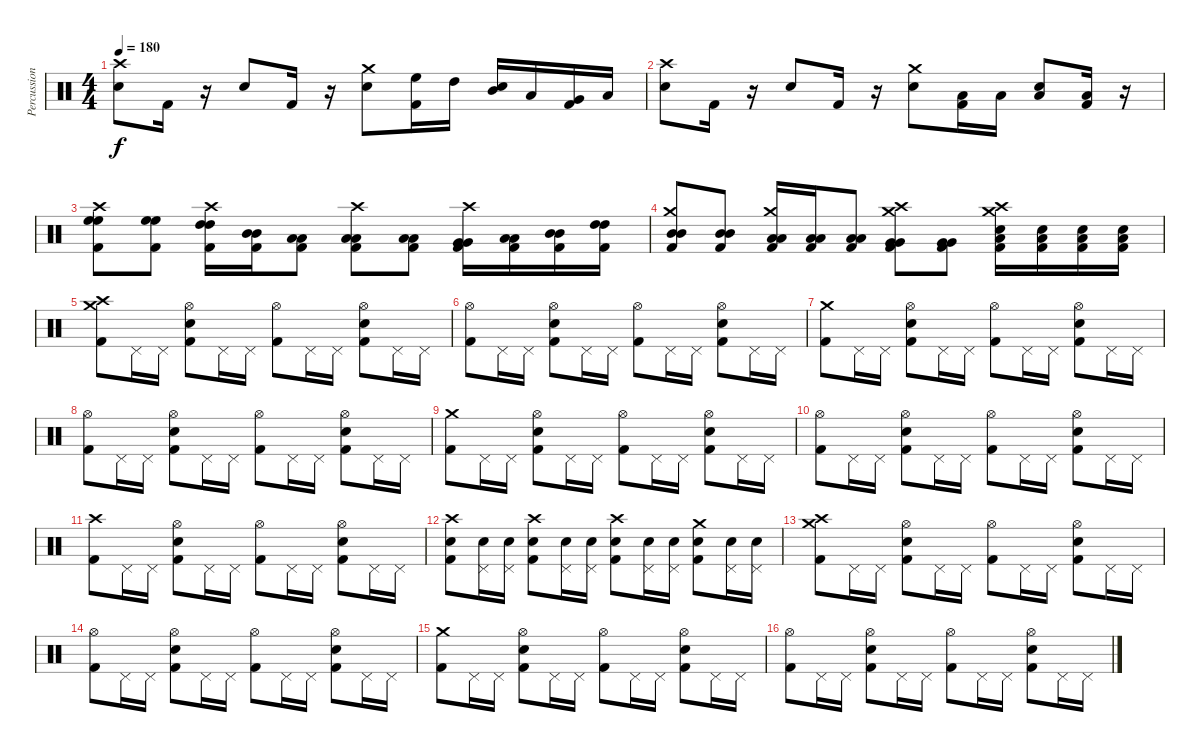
\track ("Percussion" "Percussion") {instrument percussion}
\staff {score}
\articulation defaults
\ts (4 4)
\tempo 180
\clef neutral
\ks c
("Crash high (hit)" "Electric Snare (hit)").8{dy f} "Kick (hit) 2".16 r.16 "Electric Snare (hit)".8 "Kick (hit) 2".16 r.16 ("Crash medium (hit)" "Electric Snare (hit)").8 ("High Floor Tom (hit)" "Kick (hit) 2").16 "High Tom (hit)".16 ("Mid Tom (hit)" "Electric Snare (hit)").16 "Low Tom (hit)".16 ("Very Low Tom (hit)" "Kick (hit) 2").16 "Low Floor Tom (hit)".16 |
("Crash high (hit)" "Electric Snare (hit)").8 "Kick (hit) 2".16 r.16 "Electric Snare (hit)".8 "Kick (hit) 2".16 r.16 ("Crash medium (hit)" "Electric Snare (hit)").8 ("Low Floor Tom (hit)" "Kick (hit) 2").16 "Low Floor Tom (hit)".16 ("Low Floor Tom (hit)" "Electric Snare (hit)").8 ("Low Floor Tom (hit)" "Kick (hit) 2").16 r.16 |
("Crash high (hit)" "High Floor Tom (hit)" "High Floor Tom (hit)" "Kick (hit) 2").8 ("High Floor Tom (hit)" "High Floor Tom (hit)" "Kick (hit) 2").8 ("Crash high (hit)" "High Tom (hit)" "High Tom (hit)" "Kick (hit) 2").16 ("Mid Tom (hit)" "Mid Tom (hit)" "Kick (hit) 2").16 ("Low Tom (hit)" "Low Tom (hit)" "Kick (hit) 2").8 ("Crash high (hit)" "Low Floor Tom (hit)" "Low Floor Tom (hit)" "Kick (hit) 2").8 ("Low Floor Tom (hit)" "Low Floor Tom (hit)" "Kick (hit) 2").8 ("Crash high (hit)" "Very Low Tom (hit)" "Very Low Tom (hit)" "Kick (hit) 2").16 ("Low Tom (hit)" "Low Tom (hit)" "Kick (hit) 2").16 ("Mid Tom (hit)" "Mid Tom (hit)" "Kick (hit) 2").16 ("High Tom (hit)" "High Tom (hit)" "Kick (hit) 2").16 |
("Crash medium (hit)" "Mid Tom (hit)" "Mid Tom (hit)" "Kick (hit) 2").8 ("Mid Tom (hit)" "Mid Tom (hit)" "Kick (hit) 2").8 ("Crash medium (hit)" "Low Tom (hit)" "Low Tom (hit)" "Kick (hit) 2").16 ("Low Tom (hit)" "Low Tom (hit)" "Kick (hit) 2").16 ("Low Tom (hit)" "Low Tom (hit)" "Kick (hit) 2").8 ("Crash medium (hit)" "Crash high (hit)" "Very Low Tom (hit)" "Very Low Tom (hit)" "Kick (hit) 2").8 ("Very Low Tom (hit)" "Very Low Tom (hit)" "Kick (hit) 2").8 ("Crash medium (hit)" "Crash high (hit)" "Electric Snare (hit)" "Low Floor Tom (hit)" "Kick (hit) 2").16 ("Electric Snare (hit)" "Low Floor Tom (hit)" "Kick (hit) 2").16 ("Electric Snare (hit)" "Low Floor Tom (hit)" "Kick (hit) 2").16 ("Electric Snare (hit)" "Low Floor Tom (hit)" "Kick (hit) 2").16 |
("Crash high (hit)" "Crash medium (hit)" "Kick (hit) 2").8 "Pedal Hi-Hat (hit)".16 "Pedal Hi-Hat (hit)".16 ("Hi-Hat (open)" "Electric Snare (hit)" "Kick (hit) 2").8 "Pedal Hi-Hat (hit)".16 "Pedal Hi-Hat (hit)".16 ("Hi-Hat (open)" "Kick (hit) 2").8 "Pedal Hi-Hat (hit)".16 "Pedal Hi-Hat (hit)".16 ("Hi-Hat (open)" "Electric Snare (hit)" "Kick (hit) 2").8 "Pedal Hi-Hat (hit)".16 "Pedal Hi-Hat (hit)".16 |
("Hi-Hat (open)" "Kick (hit) 2").8 "Pedal Hi-Hat (hit)".16 "Pedal Hi-Hat (hit)".16 ("Hi-Hat (open)" "Electric Snare (hit)" "Kick (hit) 2").8 "Pedal Hi-Hat (hit)".16 "Pedal Hi-Hat (hit)".16 ("Hi-Hat (open)" "Kick (hit) 2").8 "Pedal Hi-Hat (hit)".16 "Pedal Hi-Hat (hit)".16 ("Hi-Hat (open)" "Electric Snare (hit)" "Kick (hit) 2").8 "Pedal Hi-Hat (hit)".16 "Pedal Hi-Hat (hit)".16 |
("Crash medium (hit)" "Kick (hit) 2").8 "Pedal Hi-Hat (hit)".16 "Pedal Hi-Hat (hit)".16 ("Hi-Hat (open)" "Electric Snare (hit)" "Kick (hit) 2").8 "Pedal Hi-Hat (hit)".16 "Pedal Hi-Hat (hit)".16 ("Hi-Hat (open)" "Kick (hit) 2").8 "Pedal Hi-Hat (hit)".16 "Pedal Hi-Hat (hit)".16 ("Hi-Hat (open)" "Electric Snare (hit)" "Kick (hit) 2").8 "Pedal Hi-Hat (hit)".16 "Pedal Hi-Hat (hit)".16 |
("Hi-Hat (open)" "Kick (hit) 2").8 "Pedal Hi-Hat (hit)".16 "Pedal Hi-Hat (hit)".16 ("Hi-Hat (open)" "Electric Snare (hit)" "Kick (hit) 2").8 "Pedal Hi-Hat (hit)".16 "Pedal Hi-Hat (hit)".16 ("Hi-Hat (open)" "Kick (hit) 2").8 "Pedal Hi-Hat (hit)".16 "Pedal Hi-Hat (hit)".16 ("Hi-Hat (open)" "Electric Snare (hit)" "Kick (hit) 2").8 "Pedal Hi-Hat (hit)".16 "Pedal Hi-Hat (hit)".16 |
("Crash medium (hit)" "Kick (hit) 2").8 "Pedal Hi-Hat (hit)".16 "Pedal Hi-Hat (hit)".16 ("Hi-Hat (open)" "Electric Snare (hit)" "Kick (hit) 2").8 "Pedal Hi-Hat (hit)".16 "Pedal Hi-Hat (hit)".16 ("Hi-Hat (open)" "Kick (hit) 2").8 "Pedal Hi-Hat (hit)".16 "Pedal Hi-Hat (hit)".16 ("Hi-Hat (open)" "Electric Snare (hit)" "Kick (hit) 2").8 "Pedal Hi-Hat (hit)".16 "Pedal Hi-Hat (hit)".16 |
("Hi-Hat (open)" "Kick (hit) 2").8 "Pedal Hi-Hat (hit)".16 "Pedal Hi-Hat (hit)".16 ("Hi-Hat (open)" "Electric Snare (hit)" "Kick (hit) 2").8 "Pedal Hi-Hat (hit)".16 "Pedal Hi-Hat (hit)".16 ("Hi-Hat (open)" "Kick (hit) 2").8 "Pedal Hi-Hat (hit)".16 "Pedal Hi-Hat (hit)".16 ("Hi-Hat (open)" "Electric Snare (hit)" "Kick (hit) 2").8 "Pedal Hi-Hat (hit)".16 "Pedal Hi-Hat (hit)".16 |
("Crash high (hit)" "Kick (hit) 2").8 "Pedal Hi-Hat (hit)".16 "Pedal Hi-Hat (hit)".16 ("Hi-Hat (open)" "Electric Snare (hit)" "Kick (hit) 2").8 "Pedal Hi-Hat (hit)".16 "Pedal Hi-Hat (hit)".16 ("Hi-Hat (open)" "Kick (hit) 2").8 "Pedal Hi-Hat (hit)".16 "Pedal Hi-Hat (hit)".16 ("Hi-Hat (open)" "Electric Snare (hit)" "Kick (hit) 2").8 "Pedal Hi-Hat (hit)".16 "Pedal Hi-Hat (hit)".16 |
("Crash high (hit)" "Electric Snare (hit)" "Kick (hit) 2").8 ("Pedal Hi-Hat (hit)" "Electric Snare (hit)").16 ("Pedal Hi-Hat (hit)" "Electric Snare (hit)").16 ("Crash high (hit)" "Electric Snare (hit)" "Kick (hit) 2").8 ("Pedal Hi-Hat (hit)" "Electric Snare (hit)").16 ("Pedal Hi-Hat (hit)" "Electric Snare (hit)").16 ("Crash high (hit)" "Electric Snare (hit)" "Kick (hit) 2").8 ("Pedal Hi-Hat (hit)" "Electric Snare (hit)").16 ("Pedal Hi-Hat (hit)" "Electric Snare (hit)").16 ("Crash medium (hit)" "Electric Snare (hit)" "Kick (hit) 2").8 ("Pedal Hi-Hat (hit)" "Electric Snare (hit)").16 ("Pedal Hi-Hat (hit)" "Electric Snare (hit)").16 |
("Crash high (hit)" "Crash medium (hit)" "Kick (hit) 2").8 "Pedal Hi-Hat (hit)".16 "Pedal Hi-Hat (hit)".16 ("Hi-Hat (open)" "Electric Snare (hit)" "Kick (hit) 2").8 "Pedal Hi-Hat (hit)".16 "Pedal Hi-Hat (hit)".16 ("Hi-Hat (open)" "Kick (hit) 2").8 "Pedal Hi-Hat (hit)".16 "Pedal Hi-Hat (hit)".16 ("Hi-Hat (open)" "Electric Snare (hit)" "Kick (hit) 2").8 "Pedal Hi-Hat (hit)".16 "Pedal Hi-Hat (hit)".16 |
("Hi-Hat (open)" "Kick (hit) 2").8 "Pedal Hi-Hat (hit)".16 "Pedal Hi-Hat (hit)".16 ("Hi-Hat (open)" "Electric Snare (hit)" "Kick (hit) 2").8 "Pedal Hi-Hat (hit)".16 "Pedal Hi-Hat (hit)".16 ("Hi-Hat (open)" "Kick (hit) 2").8 "Pedal Hi-Hat (hit)".16 "Pedal Hi-Hat (hit)".16 ("Hi-Hat (open)" "Electric Snare (hit)" "Kick (hit) 2").8 "Pedal Hi-Hat (hit)".16 "Pedal Hi-Hat (hit)".16 |
("Crash medium (hit)" "Kick (hit) 2").8 "Pedal Hi-Hat (hit)".16 "Pedal Hi-Hat (hit)".16 ("Hi-Hat (open)" "Electric Snare (hit)" "Kick (hit) 2").8 "Pedal Hi-Hat (hit)".16 "Pedal Hi-Hat (hit)".16 ("Hi-Hat (open)" "Kick (hit) 2").8 "Pedal Hi-Hat (hit)".16 "Pedal Hi-Hat (hit)".16 ("Hi-Hat (open)" "Electric Snare (hit)" "Kick (hit) 2").8 "Pedal Hi-Hat (hit)".16 "Pedal Hi-Hat (hit)".16 |
("Hi-Hat (open)" "Kick (hit) 2").8 "Pedal Hi-Hat (hit)".16 "Pedal Hi-Hat (hit)".16 ("Hi-Hat (open)" "Electric Snare (hit)" "Kick (hit) 2").8 "Pedal Hi-Hat (hit)".16 "Pedal Hi-Hat (hit)".16 ("Hi-Hat (open)" "Kick (hit) 2").8 "Pedal Hi-Hat (hit)".16 "Pedal Hi-Hat (hit)".16 ("Hi-Hat (open)" "Electric Snare (hit)" "Kick (hit) 2").8 "Pedal Hi-Hat (hit)".16 "Pedal Hi-Hat (hit)".16
